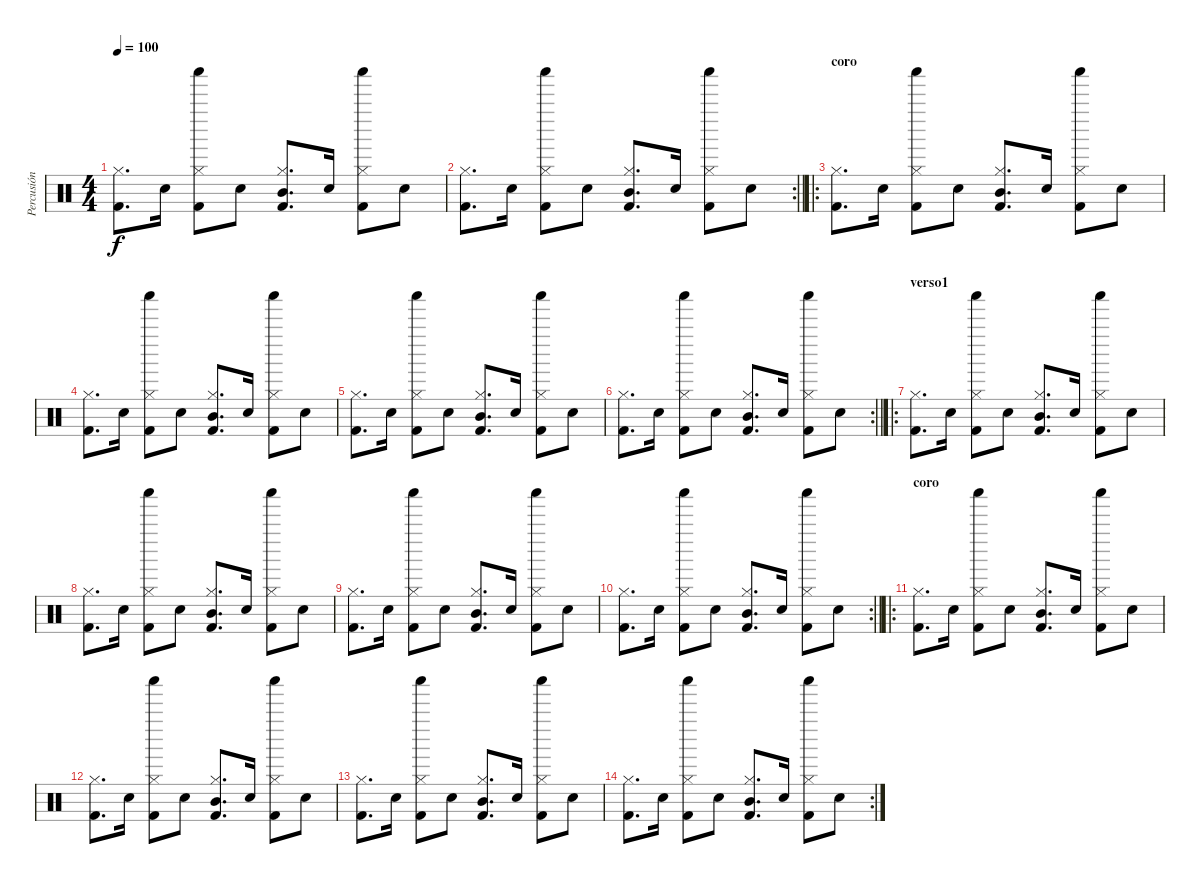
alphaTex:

\track ("Percusión" "Percusión") {instrument percussion}
\staff {score}
\articulation defaults
\ts (4 4)
\tempo 100
\clef neutral
\ks c
("Kick (hit) 2" "Hi-Hat (closed)").8{d dy f} "Electric Snare (hit)".16 ("Kick (hit) 2" "Hi-Hat (closed)" "Shaker (hit)").8 "Electric Snare (hit)".8 ("Kick (hit) 2" "Mid Tom (hit)" "Hi-Hat (closed)").8{d} "Electric Snare (hit)".16 ("Kick (hit) 2" "Hi-Hat (closed)" "Shaker (hit)").8 "Electric Snare (hit)".8 |
\rc 2
\barLineRight lightlight
("Kick (hit) 2" "Hi-Hat (closed)").8{d} "Electric Snare (hit)".16 ("Kick (hit) 2" "Hi-Hat (closed)" "Shaker (hit)").8 "Electric Snare (hit)".8 ("Kick (hit) 2" "Mid Tom (hit)" "Hi-Hat (closed)").8{d} "Electric Snare (hit)".16 ("Kick (hit) 2" "Hi-Hat (closed)" "Shaker (hit)").8 "Electric Snare (hit)".8 |
\ro
\section ("" "coro")
("Kick (hit) 2" "Hi-Hat (closed)").8{d} "Electric Snare (hit)".16 ("Kick (hit) 2" "Hi-Hat (closed)" "Shaker (hit)").8 "Electric Snare (hit)".8 ("Kick (hit) 2" "Mid Tom (hit)" "Hi-Hat (closed)").8{d} "Electric Snare (hit)".16 ("Kick (hit) 2" "Hi-Hat (closed)" "Shaker (hit)").8 "Electric Snare (hit)".8 |
("Kick (hit) 2" "Hi-Hat (closed)").8{d} "Electric Snare (hit)".16 ("Kick (hit) 2" "Hi-Hat (closed)" "Shaker (hit)").8 "Electric Snare (hit)".8 ("Kick (hit) 2" "Mid Tom (hit)" "Hi-Hat (closed)").8{d} "Electric Snare (hit)".16 ("Kick (hit) 2" "Hi-Hat (closed)" "Shaker (hit)").8 "Electric Snare (hit)".8 |
("Kick (hit) 2" "Hi-Hat (closed)").8{d} "Electric Snare (hit)".16 ("Kick (hit) 2" "Hi-Hat (closed)" "Shaker (hit)").8 "Electric Snare (hit)".8 ("Kick (hit) 2" "Mid Tom (hit)" "Hi-Hat (closed)").8{d} "Electric Snare (hit)".16 ("Kick (hit) 2" "Hi-Hat (closed)" "Shaker (hit)").8 "Electric Snare (hit)".8 |
\rc 2
\barLineRight lightlight
("Kick (hit) 2" "Hi-Hat (closed)").8{d} "Electric Snare (hit)".16 ("Kick (hit) 2" "Hi-Hat (closed)" "Shaker (hit)").8 "Electric Snare (hit)".8 ("Kick (hit) 2" "Mid Tom (hit)" "Hi-Hat (closed)").8{d} "Electric Snare (hit)".16 ("Kick (hit) 2" "Hi-Hat (closed)" "Shaker (hit)").8 "Electric Snare (hit)".8 |
\ro
\section ("" "verso1")
("Kick (hit) 2" "Hi-Hat (closed)").8{d} "Electric Snare (hit)".16 ("Kick (hit) 2" "Hi-Hat (closed)" "Shaker (hit)").8 "Electric Snare (hit)".8 ("Kick (hit) 2" "Mid Tom (hit)" "Hi-Hat (closed)").8{d} "Electric Snare (hit)".16 ("Kick (hit) 2" "Hi-Hat (closed)" "Shaker (hit)").8 "Electric Snare (hit)".8 |
("Kick (hit) 2" "Hi-Hat (closed)").8{d} "Electric Snare (hit)".16 ("Kick (hit) 2" "Hi-Hat (closed)" "Shaker (hit)").8 "Electric Snare (hit)".8 ("Kick (hit) 2" "Mid Tom (hit)" "Hi-Hat (closed)").8{d} "Electric Snare (hit)".16 ("Kick (hit) 2" "Hi-Hat (closed)" "Shaker (hit)").8 "Electric Snare (hit)".8 |
("Kick (hit) 2" "Hi-Hat (closed)").8{d} "Electric Snare (hit)".16 ("Kick (hit) 2" "Hi-Hat (closed)" "Shaker (hit)").8 "Electric Snare (hit)".8 ("Kick (hit) 2" "Mid Tom (hit)" "Hi-Hat (closed)").8{d} "Electric Snare (hit)".16 ("Kick (hit) 2" "Hi-Hat (closed)" "Shaker (hit)").8 "Electric Snare (hit)".8 |
\rc 2
\barLineRight lightlight
("Kick (hit) 2" "Hi-Hat (closed)").8{d} "Electric Snare (hit)".16 ("Kick (hit) 2" "Hi-Hat (closed)" "Shaker (hit)").8 "Electric Snare (hit)".8 ("Kick (hit) 2" "Mid Tom (hit)" "Hi-Hat (closed)").8{d} "Electric Snare (hit)".16 ("Kick (hit) 2" "Hi-Hat (closed)" "Shaker (hit)").8 "Electric Snare (hit)".8 |
\ro
\section ("" "coro")
("Kick (hit) 2" "Hi-Hat (closed)").8{d} "Electric Snare (hit)".16 ("Kick (hit) 2" "Hi-Hat (closed)" "Shaker (hit)").8 "Electric Snare (hit)".8 ("Kick (hit) 2" "Mid Tom (hit)" "Hi-Hat (closed)").8{d} "Electric Snare (hit)".16 ("Kick (hit) 2" "Hi-Hat (closed)" "Shaker (hit)").8 "Electric Snare (hit)".8 |
("Kick (hit) 2" "Hi-Hat (closed)").8{d} "Electric Snare (hit)".16 ("Kick (hit) 2" "Hi-Hat (closed)" "Shaker (hit)").8 "Electric Snare (hit)".8 ("Kick (hit) 2" "Mid Tom (hit)" "Hi-Hat (closed)").8{d} "Electric Snare (hit)".16 ("Kick (hit) 2" "Hi-Hat (closed)" "Shaker (hit)").8 "Electric Snare (hit)".8 |
("Kick (hit) 2" "Hi-Hat (closed)").8{d} "Electric Snare (hit)".16 ("Kick (hit) 2" "Hi-Hat (closed)" "Shaker (hit)").8 "Electric Snare (hit)".8 ("Kick (hit) 2" "Mid Tom (hit)" "Hi-Hat (closed)").8{d} "Electric Snare (hit)".16 ("Kick (hit) 2" "Hi-Hat (closed)" "Shaker (hit)").8 "Electric Snare (hit)".8 |
\rc 2
("Kick (hit) 2" "Hi-Hat (closed)").8{d} "Electric Snare (hit)".16 ("Kick (hit) 2" "Hi-Hat (closed)" "Shaker (hit)").8 "Electric Snare (hit)".8 ("Kick (hit) 2" "Mid Tom (hit)" "Hi-Hat (closed)").8{d} "Electric Snare (hit)".16 ("Kick (hit) 2" "Hi-Hat (closed)" "Shaker (hit)").8 "Electric Snare (hit)".8
